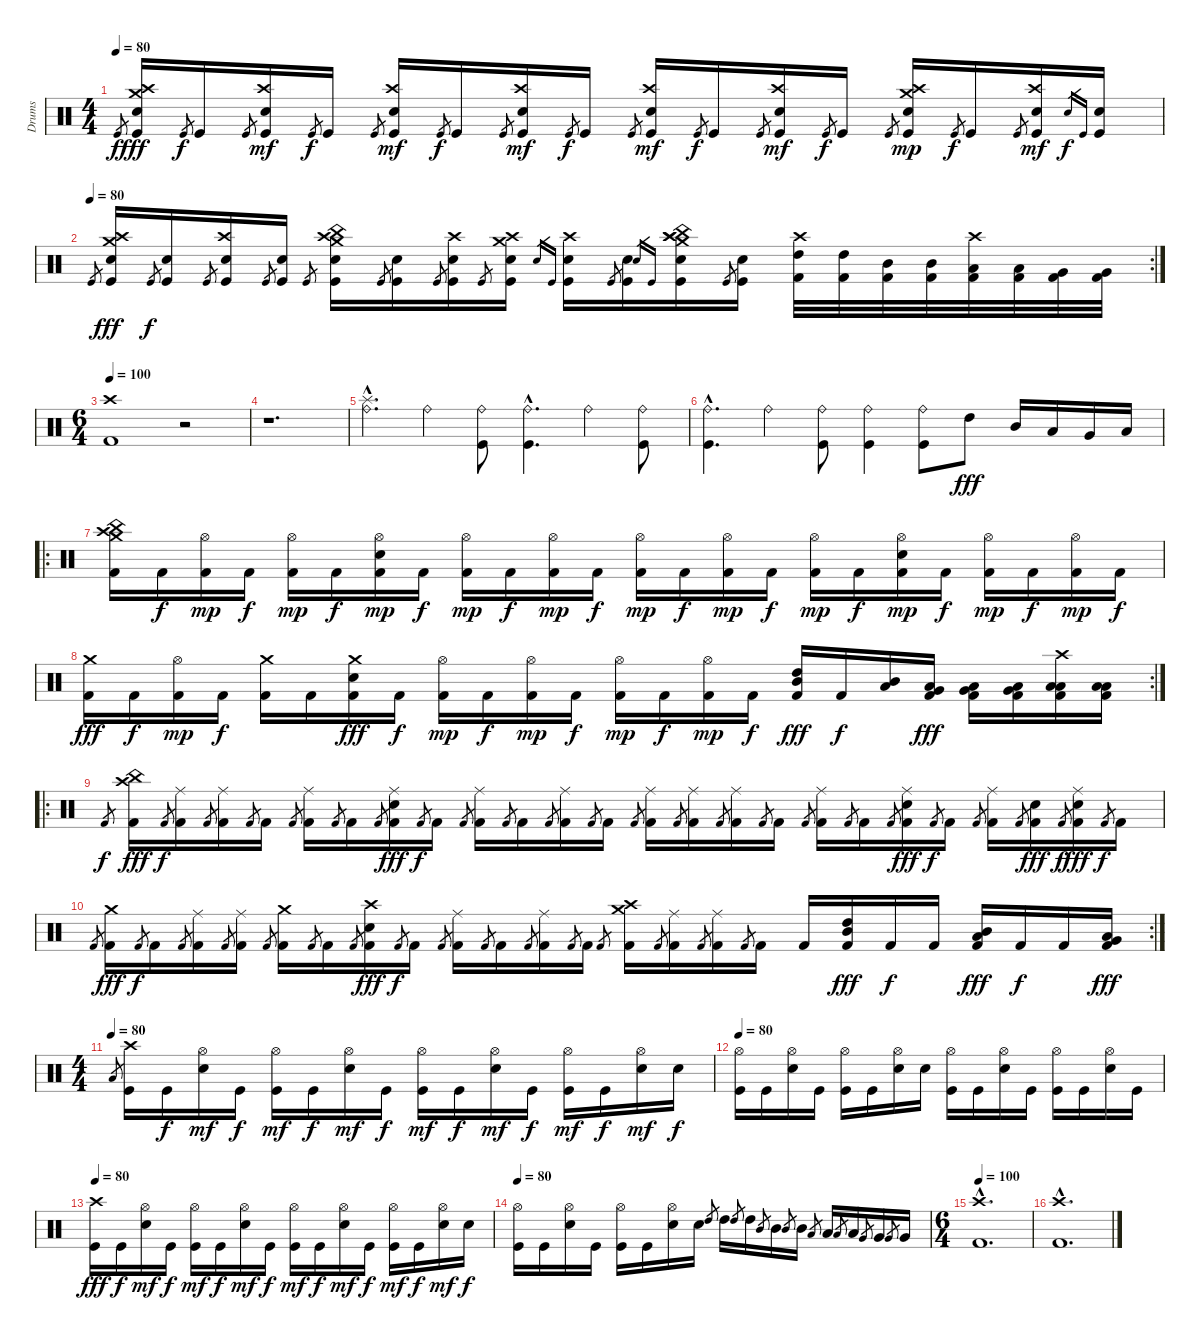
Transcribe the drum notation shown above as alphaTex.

\track ("Drums" "Drums") {instrument percussion}
\staff {score}
\articulation defaults
\ts (4 4)
\tempo 80
\clef neutral
\ks c "Kick (hit)".8{gr dy f}
("Crash high (hit)" "Crash medium (hit)" "Electric Snare (hit)" "Kick (hit)").16{dy fff balance 8} "Kick (hit)".8{gr dy f} "Kick (hit)".16 "Kick (hit)".8{gr} ("Crash high (hit)" "Electric Snare (hit)" "Kick (hit)").16{dy mf} "Kick (hit)".8{gr dy f} "Kick (hit)".16 "Kick (hit)".8{gr} ("Crash high (hit)" "Electric Snare (hit)" "Kick (hit)").16{dy mf} "Kick (hit)".8{gr dy f} "Kick (hit)".16 "Kick (hit)".8{gr} ("Crash high (hit)" "Electric Snare (hit)" "Kick (hit)").16{dy mf} "Kick (hit)".8{gr dy f} "Kick (hit)".16 "Kick (hit)".8{gr} ("Crash high (hit)" "Electric Snare (hit)" "Kick (hit)").16{dy mf} "Kick (hit)".8{gr dy f} "Kick (hit)".16 "Kick (hit)".8{gr} ("Crash high (hit)" "Electric Snare (hit)" "Kick (hit)").16{dy mf} "Kick (hit)".8{gr dy f} "Kick (hit)".16 "Kick (hit)".8{gr} ("Crash high (hit)" "Crash medium (hit)" "Electric Snare (hit)" "Kick (hit)").16{dy mp} "Kick (hit)".8{gr dy f} "Kick (hit)".16 "Kick (hit)".8{gr} ("Crash high (hit)" "Electric Snare (hit)" "Kick (hit)").16{dy mf} "Electric Snare (hit)".16{gr dy f} "Kick (hit)".16{gr} ("Electric Snare (hit)" "Kick (hit)").16 |
\rc 2
\tempo (80)
"Kick (hit)".8{gr} ("Crash high (hit)" "Crash medium (hit)" "Electric Snare (hit)" "Kick (hit)").16{dy fff} "Kick (hit)".8{gr dy f} ("Electric Snare (hit)" "Kick (hit)").16 "Kick (hit)".8{gr} ("Crash high (hit)" "Electric Snare (hit)" "Kick (hit)").16 "Kick (hit)".8{gr} ("Electric Snare (hit)" "Kick (hit)").16 "Kick (hit)".8{gr} ("Crash high (hit)" "Crash medium (hit)" "China (hit)" "Electric Snare (hit)" "Kick (hit)").16 "Kick (hit)".8{gr} ("Electric Snare (hit)" "Kick (hit)").16 "Kick (hit)".8{gr} ("Crash high (hit)" "Electric Snare (hit)" "Kick (hit)").16 "Kick (hit)".8{gr} ("Crash medium (hit)" "Crash high (hit)" "Electric Snare (hit)" "Kick (hit)").16 "Electric Snare (hit)".16{gr} "Kick (hit)".16{gr} ("Crash high (hit)" "Electric Snare (hit)" "Kick (hit)").16 "Kick (hit)".8{gr} ("Electric Snare (hit)" "Kick (hit)").16 "Electric Snare (hit)".16{gr} "Kick (hit)".16{gr} ("Crash medium (hit)" "Crash high (hit)" "Crash high (hit)" "China (hit)" "Electric Snare (hit)" "Kick (hit)").16 "Kick (hit)".8{gr} ("Electric Snare (hit)" "Kick (hit)").16 ("Crash high (hit)" "High Tom (hit)" "Kick (hit) 2").32 ("High Tom (hit)" "Kick (hit) 2").32 ("Mid Tom (hit)" "Kick (hit) 2").32 ("Mid Tom (hit)" "Kick (hit) 2").32 ("Crash high (hit)" "Low Tom (hit)" "Kick (hit) 2").32 ("Low Tom (hit)" "Kick (hit) 2").32 ("Very Low Tom (hit)" "Kick (hit) 2").32 ("Very Low Tom (hit)" "Kick (hit) 2").32 |
\ts (6 4)
\tempo 100
("Kick (hit) 2" "Crash high (hit)").1 r.2 |
r.1{d} |
("Ride (bell)"{hac} "Splash (hit)"{hac}).4{d} "Ride (bell)".4 ("Ride (bell)" "Kick (hit)").8 ("Ride (bell)"{hac} "Kick (hit)"{hac}).4{d} "Ride (bell)".4 ("Ride (bell)" "Kick (hit)").8 |
("Ride (bell)"{hac} "Kick (hit)"{hac}).4{d} "Ride (bell)".4 ("Ride (bell)" "Kick (hit)").8 ("Ride (bell)" "Kick (hit)").4 ("Ride (bell)" "Kick (hit)").8 "High Tom (hit)".8{dy fff} "Mid Tom (hit)".16 "Low Tom (hit)".16 "Very Low Tom (hit)".16 "Low Floor Tom (hit)".16 |
\ro
("Kick (hit) 2" "Crash high (hit)" "Crash medium (hit)" "China (hit)").16 "Kick (hit) 2".16{dy f} ("Kick (hit) 2" "Hi-Hat (open)").16{dy mp} "Kick (hit) 2".16{dy f} ("Kick (hit) 2" "Hi-Hat (open)").16{dy mp} "Kick (hit) 2".16{dy f} ("Kick (hit) 2" "Electric Snare (hit)" "Hi-Hat (open)").16{dy mp} "Kick (hit) 2".16{dy f} ("Kick (hit) 2" "Hi-Hat (open)").16{dy mp} "Kick (hit) 2".16{dy f} ("Kick (hit) 2" "Hi-Hat (open)").16{dy mp} "Kick (hit) 2".16{dy f} ("Kick (hit) 2" "Hi-Hat (open)").16{dy mp} "Kick (hit) 2".16{dy f} ("Kick (hit) 2" "Hi-Hat (open)").16{dy mp} "Kick (hit) 2".16{dy f} ("Kick (hit) 2" "Hi-Hat (open)").16{dy mp} "Kick (hit) 2".16{dy f} ("Kick (hit) 2" "Electric Snare (hit)" "Hi-Hat (open)").16{dy mp} "Kick (hit) 2".16{dy f} ("Kick (hit) 2" "Hi-Hat (open)").16{dy mp} "Kick (hit) 2".16{dy f} ("Kick (hit) 2" "Hi-Hat (open)").16{dy mp} "Kick (hit) 2".16{dy f} |
\rc 2
("Kick (hit) 2" "Crash medium (hit)").16{dy fff} "Kick (hit) 2".16{dy f} ("Kick (hit) 2" "Hi-Hat (open)").16{dy mp} "Kick (hit) 2".16{dy f} ("Kick (hit) 2" "Crash medium (hit)").16 "Kick (hit) 2".16 ("Kick (hit) 2" "Crash medium (hit)" "Electric Snare (hit)").16{dy fff} "Kick (hit) 2".16{dy f} ("Kick (hit) 2" "Hi-Hat (open)").16{dy mp} "Kick (hit) 2".16{dy f} ("Kick (hit) 2" "Hi-Hat (open)").16{dy mp} "Kick (hit) 2".16{dy f} ("Kick (hit) 2" "Hi-Hat (open)").16{dy mp} "Kick (hit) 2".16{dy f} ("Kick (hit) 2" "Hi-Hat (open)").16{dy mp} "Kick (hit) 2".16{dy f} ("Kick (hit) 2" "High Tom (hit)" "Mid Tom (hit)").16{dy fff} "Kick (hit) 2".16{dy f} ("Mid Tom (hit)" "Low Tom (hit)").16 ("Kick (hit) 2" "Low Tom (hit)" "Very Low Tom (hit)").16{dy fff} ("Kick (hit) 2" "Low Tom (hit)" "Very Low Tom (hit)").16 ("Kick (hit) 2" "Very Low Tom (hit)" "Low Floor Tom (hit)").16 ("Kick (hit) 2" "Low Floor Tom (hit)" "Low Floor Tom (hit)" "Crash high (hit)").16 ("Kick (hit) 2" "Low Floor Tom (hit)" "Low Floor Tom (hit)").16 |
\ro "Kick (hit) 2".8{gr dy f}
("Kick (hit) 2" "Crash high (hit)" "China (hit)").16{dy fff} "Kick (hit) 2".8{gr dy f} ("Kick (hit) 2" "Ride (middle)").16 "Kick (hit) 2".8{gr} ("Kick (hit) 2" "Ride (middle)").16 "Kick (hit) 2".8{gr} "Kick (hit) 2".16 "Kick (hit) 2".8{gr} ("Kick (hit) 2" "Ride (middle)").16 "Kick (hit) 2".8{gr} "Kick (hit) 2".16 "Kick (hit) 2".8{gr} ("Kick (hit) 2" "Electric Snare (hit)" "Ride (middle)").16{dy fff} "Kick (hit) 2".8{gr dy f} "Kick (hit) 2".16 "Kick (hit) 2".8{gr} ("Kick (hit) 2" "Ride (middle)").16 "Kick (hit) 2".8{gr} "Kick (hit) 2".16 "Kick (hit) 2".8{gr} ("Kick (hit) 2" "Ride (middle)").16 "Kick (hit) 2".8{gr} "Kick (hit) 2".16 "Kick (hit) 2".8{gr} ("Kick (hit) 2" "Ride (middle)").16 "Kick (hit) 2".8{gr} ("Kick (hit) 2" "Ride (middle)").16 "Kick (hit) 2".8{gr} ("Kick (hit) 2" "Ride (middle)").16 "Kick (hit) 2".8{gr} "Kick (hit) 2".16 "Kick (hit) 2".8{gr} ("Kick (hit) 2" "Ride (middle)").16 "Kick (hit) 2".8{gr} "Kick (hit) 2".16 "Kick (hit) 2".8{gr} ("Kick (hit) 2" "Electric Snare (hit)" "Ride (middle)").16{dy fff} "Kick (hit) 2".8{gr dy f} "Kick (hit) 2".16 "Kick (hit) 2".8{gr} ("Kick (hit) 2" "Ride (middle)").16 "Kick (hit) 2".8{gr} ("Kick (hit) 2" "Electric Snare (hit)").16{dy fff} "Kick (hit) 2".8{gr dy f} ("Kick (hit) 2" "Electric Snare (hit)" "Ride (middle)").16{dy fff} "Kick (hit) 2".8{gr dy f} "Kick (hit) 2".16 |
\rc 2 "Kick (hit) 2".8{gr}
("Kick (hit) 2" "Crash medium (hit)").16{dy fff} "Kick (hit) 2".8{gr dy f} "Kick (hit) 2".16 "Kick (hit) 2".8{gr} ("Kick (hit) 2" "Ride (middle)").16 "Kick (hit) 2".8{gr} ("Kick (hit) 2" "Ride (middle)").16 "Kick (hit) 2".8{gr} ("Kick (hit) 2" "Crash medium (hit)").16 "Kick (hit) 2".8{gr} "Kick (hit) 2".16 "Kick (hit) 2".8{gr} ("Kick (hit) 2" "Crash high (hit)" "Electric Snare (hit)").16{dy fff} "Kick (hit) 2".8{gr dy f} "Kick (hit) 2".16 "Kick (hit) 2".8{gr} ("Kick (hit) 2" "Ride (middle)").16 "Kick (hit) 2".8{gr} "Kick (hit) 2".16 "Kick (hit) 2".8{gr} ("Kick (hit) 2" "Ride (middle)").16 "Kick (hit) 2".8{gr} "Kick (hit) 2".16 "Kick (hit) 2".8{gr} ("Kick (hit) 2" "Crash medium (hit)" "Crash high (hit)").16 "Kick (hit) 2".8{gr} ("Kick (hit) 2" "Ride (middle)").16 "Kick (hit) 2".8{gr} ("Kick (hit) 2" "Ride (middle)").16 "Kick (hit) 2".8{gr} "Kick (hit) 2".16 "Kick (hit) 2".16 ("Kick (hit) 2" "High Tom (hit)" "Mid Tom (hit)").16{dy fff} "Kick (hit) 2".16{dy f} "Kick (hit) 2".16 ("Kick (hit) 2" "Mid Tom (hit)" "Low Tom (hit)").16{dy fff} "Kick (hit) 2".16{dy f} "Kick (hit) 2".16 ("Kick (hit) 2" "Low Tom (hit)" "Very Low Tom (hit)").16{dy fff} |
\ts (4 4)
\tempo (80)
"Low Tom (hit)".8{gr} ("Crash high (hit)" "Kick (hit)").16{balance 8} "Kick (hit)".16{dy f} ("Hi-Hat (open)" "Electric Snare (hit)").16{dy mf} "Kick (hit)".16{dy f} ("Hi-Hat (open)" "Kick (hit)").16{dy mf} "Kick (hit)".16{dy f} ("Hi-Hat (open)" "Electric Snare (hit)").16{dy mf} "Kick (hit)".16{dy f} ("Hi-Hat (open)" "Kick (hit)").16{dy mf} "Kick (hit)".16{dy f} ("Hi-Hat (open)" "Electric Snare (hit)").16{dy mf} "Kick (hit)".16{dy f} ("Hi-Hat (open)" "Kick (hit)").16{dy mf} "Kick (hit)".16{dy f} ("Hi-Hat (open)" "Electric Snare (hit)").16{dy mf} "Electric Snare (hit)".16{dy f} |
\tempo 80
("Hi-Hat (open)" "Kick (hit)").16 "Kick (hit)".16 ("Hi-Hat (open)" "Electric Snare (hit)").16 "Kick (hit)".16 ("Hi-Hat (open)" "Kick (hit)").16 "Kick (hit)".16 ("Hi-Hat (open)" "Electric Snare (hit)").16 "Electric Snare (hit)".16 ("Hi-Hat (open)" "Kick (hit)").16 "Kick (hit)".16 ("Hi-Hat (open)" "Electric Snare (hit)").16 "Kick (hit)".16 ("Hi-Hat (open)" "Kick (hit)").16 "Kick (hit)".16 ("Hi-Hat (open)" "Electric Snare (hit)").16 "Kick (hit)".16 |
\tempo 80
("Crash high (hit)" "Kick (hit)").16{dy fff balance 8} "Kick (hit)".16{dy f} ("Hi-Hat (open)" "Electric Snare (hit)").16{dy mf} "Kick (hit)".16{dy f} ("Hi-Hat (open)" "Kick (hit)").16{dy mf} "Kick (hit)".16{dy f} ("Hi-Hat (open)" "Electric Snare (hit)").16{dy mf} "Kick (hit)".16{dy f} ("Hi-Hat (open)" "Kick (hit)").16{dy mf} "Kick (hit)".16{dy f} ("Hi-Hat (open)" "Electric Snare (hit)").16{dy mf} "Kick (hit)".16{dy f} ("Hi-Hat (open)" "Kick (hit)").16{dy mf} "Kick (hit)".16{dy f} ("Hi-Hat (open)" "Electric Snare (hit)").16{dy mf} "Electric Snare (hit)".16{dy f} |
\tempo 80
("Hi-Hat (open)" "Kick (hit)").16 "Kick (hit)".16 ("Hi-Hat (open)" "Electric Snare (hit)").16 "Kick (hit)".16 ("Hi-Hat (open)" "Kick (hit)").16 "Kick (hit)".16 ("Hi-Hat (open)" "Electric Snare (hit)").16 "Electric Snare (hit)".16 "High Tom (hit)".8{gr} "High Tom (hit)".16{balance 16} "High Tom (hit)".8{gr} "High Tom (hit)".16 "Mid Tom (hit)".8{gr} "Mid Tom (hit)".16 "Mid Tom (hit)".8{gr} "Mid Tom (hit)".16 "Low Tom (hit)".8{gr} "Low Tom (hit)".16 "Low Tom (hit)".8{gr} "Low Tom (hit)".16 "Very Low Tom (hit)".8{gr} "Very Low Tom (hit)".16 "Very Low Tom (hit)".8{gr} "Very Low Tom (hit)".16 |
\ts (6 4)
\tempo 100
("Crash high (hit)"{hac} "Kick (hit) 2"{hac}).1{d balance 8} |
("Crash high (hit)"{hac} "Kick (hit) 2"{hac}).1{d}
